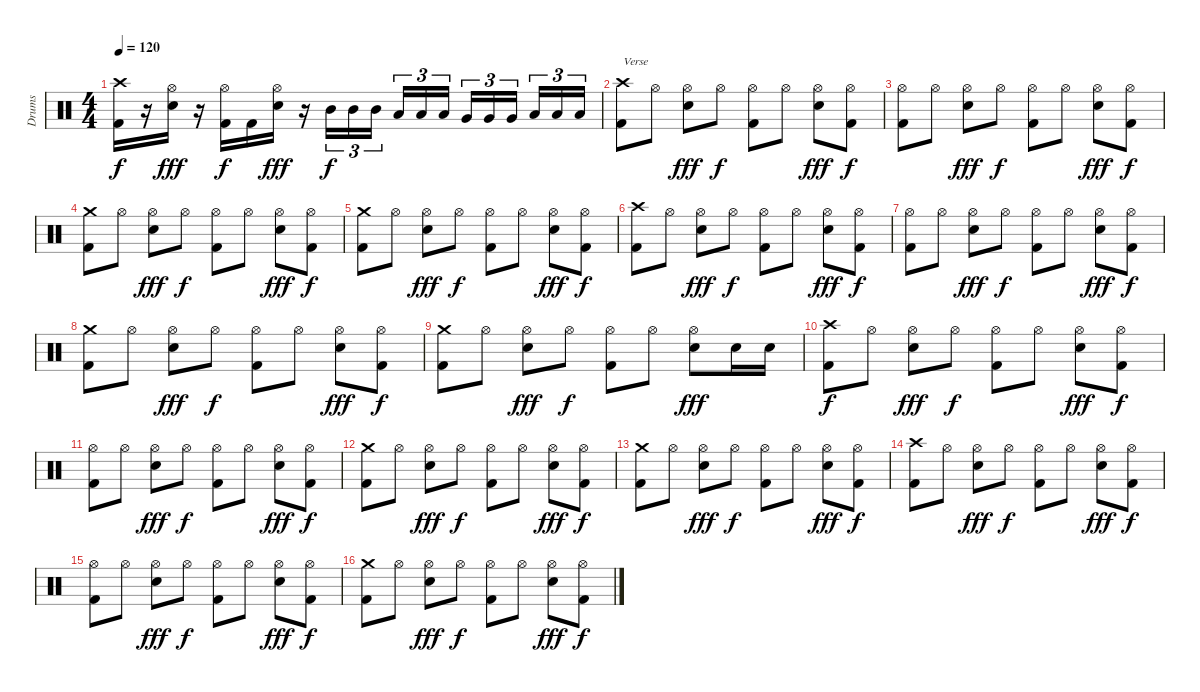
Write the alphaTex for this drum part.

\track ("Drums" "Drums") {instrument percussion}
\staff {score}
\articulation defaults
\ts (4 4)
\tempo 120
\clef neutral
\ks c
("Crash high (hit)" "Kick (hit) 2").16{dy f} r.16 ("Hi-Hat (open)" "Snare (hit) 2").16{dy fff} r.16 ("Hi-Hat (open)" "Kick (hit) 2").16{dy f} "Kick (hit) 2".16 ("Hi-Hat (open)" "Snare (hit) 2").16{dy fff} r.16 "Mid Tom (hit)".16{tu (3 2) dy f} "Mid Tom (hit)".16{tu (3 2)} "Mid Tom (hit)".16{tu (3 2)} "Low Tom (hit)".16{tu (3 2)} "Low Tom (hit)".16{tu (3 2)} "Low Tom (hit)".16{tu (3 2)} "Very Low Tom (hit)".16{tu (3 2)} "Very Low Tom (hit)".16{tu (3 2)} "Very Low Tom (hit)".16{tu (3 2)} "Low Floor Tom (hit)".16{tu (3 2)} "Low Floor Tom (hit)".16{tu (3 2)} "Low Floor Tom (hit)".16{tu (3 2)} |
("Crash high (hit)" "Kick (hit) 2").8{txt "Verse"} "Hi-Hat (open)".8 ("Hi-Hat (open)" "Snare (hit) 2").8{dy fff} "Hi-Hat (open)".8{dy f} ("Hi-Hat (open)" "Kick (hit) 2").8 "Hi-Hat (open)".8 ("Hi-Hat (open)" "Snare (hit) 2").8{dy fff} ("Hi-Hat (open)" "Kick (hit) 2").8{dy f} |
("Hi-Hat (open)" "Kick (hit) 2").8 "Hi-Hat (open)".8 ("Hi-Hat (open)" "Snare (hit) 2").8{dy fff} "Hi-Hat (open)".8{dy f} ("Hi-Hat (open)" "Kick (hit) 2").8 "Hi-Hat (open)".8 ("Hi-Hat (open)" "Snare (hit) 2").8{dy fff} ("Hi-Hat (open)" "Kick (hit) 2").8{dy f} |
("Crash medium (hit)" "Kick (hit) 2").8 "Hi-Hat (open)".8 ("Hi-Hat (open)" "Snare (hit) 2").8{dy fff} "Hi-Hat (open)".8{dy f} ("Hi-Hat (open)" "Kick (hit) 2").8 "Hi-Hat (open)".8 ("Hi-Hat (open)" "Snare (hit) 2").8{dy fff} ("Hi-Hat (open)" "Kick (hit) 2").8{dy f} |
("Crash medium (hit)" "Kick (hit) 2").8 "Hi-Hat (open)".8 ("Hi-Hat (open)" "Snare (hit) 2").8{dy fff} "Hi-Hat (open)".8{dy f} ("Hi-Hat (open)" "Kick (hit) 2").8 "Hi-Hat (open)".8 ("Hi-Hat (open)" "Snare (hit) 2").8{dy fff} ("Hi-Hat (open)" "Kick (hit) 2").8{dy f} |
("Crash high (hit)" "Kick (hit) 2").8 "Hi-Hat (open)".8 ("Hi-Hat (open)" "Snare (hit) 2").8{dy fff} "Hi-Hat (open)".8{dy f} ("Hi-Hat (open)" "Kick (hit) 2").8 "Hi-Hat (open)".8 ("Hi-Hat (open)" "Snare (hit) 2").8{dy fff} ("Hi-Hat (open)" "Kick (hit) 2").8{dy f} |
("Hi-Hat (open)" "Kick (hit) 2").8 "Hi-Hat (open)".8 ("Hi-Hat (open)" "Snare (hit) 2").8{dy fff} "Hi-Hat (open)".8{dy f} ("Hi-Hat (open)" "Kick (hit) 2").8 "Hi-Hat (open)".8 ("Hi-Hat (open)" "Snare (hit) 2").8{dy fff} ("Hi-Hat (open)" "Kick (hit) 2").8{dy f} |
("Crash medium (hit)" "Kick (hit) 2").8 "Hi-Hat (open)".8 ("Hi-Hat (open)" "Snare (hit) 2").8{dy fff} "Hi-Hat (open)".8{dy f} ("Hi-Hat (open)" "Kick (hit) 2").8 "Hi-Hat (open)".8 ("Hi-Hat (open)" "Snare (hit) 2").8{dy fff} ("Hi-Hat (open)" "Kick (hit) 2").8{dy f} |
("Crash medium (hit)" "Kick (hit) 2").8 "Hi-Hat (open)".8 ("Hi-Hat (open)" "Snare (hit) 2").8{dy fff} "Hi-Hat (open)".8{dy f} ("Hi-Hat (open)" "Kick (hit) 2").8 "Hi-Hat (open)".8 ("Hi-Hat (open)" "Snare (hit) 2").8{dy fff} "Snare (hit) 2".16 "Snare (hit) 2".16 |
("Crash high (hit)" "Kick (hit) 2").8{dy f} "Hi-Hat (open)".8 ("Hi-Hat (open)" "Snare (hit) 2").8{dy fff} "Hi-Hat (open)".8{dy f} ("Hi-Hat (open)" "Kick (hit) 2").8 "Hi-Hat (open)".8 ("Hi-Hat (open)" "Snare (hit) 2").8{dy fff} ("Hi-Hat (open)" "Kick (hit) 2").8{dy f} |
("Hi-Hat (open)" "Kick (hit) 2").8 "Hi-Hat (open)".8 ("Hi-Hat (open)" "Snare (hit) 2").8{dy fff} "Hi-Hat (open)".8{dy f} ("Hi-Hat (open)" "Kick (hit) 2").8 "Hi-Hat (open)".8 ("Hi-Hat (open)" "Snare (hit) 2").8{dy fff} ("Hi-Hat (open)" "Kick (hit) 2").8{dy f} |
("Crash medium (hit)" "Kick (hit) 2").8 "Hi-Hat (open)".8 ("Hi-Hat (open)" "Snare (hit) 2").8{dy fff} "Hi-Hat (open)".8{dy f} ("Hi-Hat (open)" "Kick (hit) 2").8 "Hi-Hat (open)".8 ("Hi-Hat (open)" "Snare (hit) 2").8{dy fff} ("Hi-Hat (open)" "Kick (hit) 2").8{dy f} |
("Crash medium (hit)" "Kick (hit) 2").8 "Hi-Hat (open)".8 ("Hi-Hat (open)" "Snare (hit) 2").8{dy fff} "Hi-Hat (open)".8{dy f} ("Hi-Hat (open)" "Kick (hit) 2").8 "Hi-Hat (open)".8 ("Hi-Hat (open)" "Snare (hit) 2").8{dy fff} ("Hi-Hat (open)" "Kick (hit) 2").8{dy f} |
("Crash high (hit)" "Kick (hit) 2").8 "Hi-Hat (open)".8 ("Hi-Hat (open)" "Snare (hit) 2").8{dy fff} "Hi-Hat (open)".8{dy f} ("Hi-Hat (open)" "Kick (hit) 2").8 "Hi-Hat (open)".8 ("Hi-Hat (open)" "Snare (hit) 2").8{dy fff} ("Hi-Hat (open)" "Kick (hit) 2").8{dy f} |
("Hi-Hat (open)" "Kick (hit) 2").8 "Hi-Hat (open)".8 ("Hi-Hat (open)" "Snare (hit) 2").8{dy fff} "Hi-Hat (open)".8{dy f} ("Hi-Hat (open)" "Kick (hit) 2").8 "Hi-Hat (open)".8 ("Hi-Hat (open)" "Snare (hit) 2").8{dy fff} ("Hi-Hat (open)" "Kick (hit) 2").8{dy f} |
("Crash medium (hit)" "Kick (hit) 2").8 "Hi-Hat (open)".8 ("Hi-Hat (open)" "Snare (hit) 2").8{dy fff} "Hi-Hat (open)".8{dy f} ("Hi-Hat (open)" "Kick (hit) 2").8 "Hi-Hat (open)".8 ("Hi-Hat (open)" "Snare (hit) 2").8{dy fff} ("Hi-Hat (open)" "Kick (hit) 2").8{dy f}
